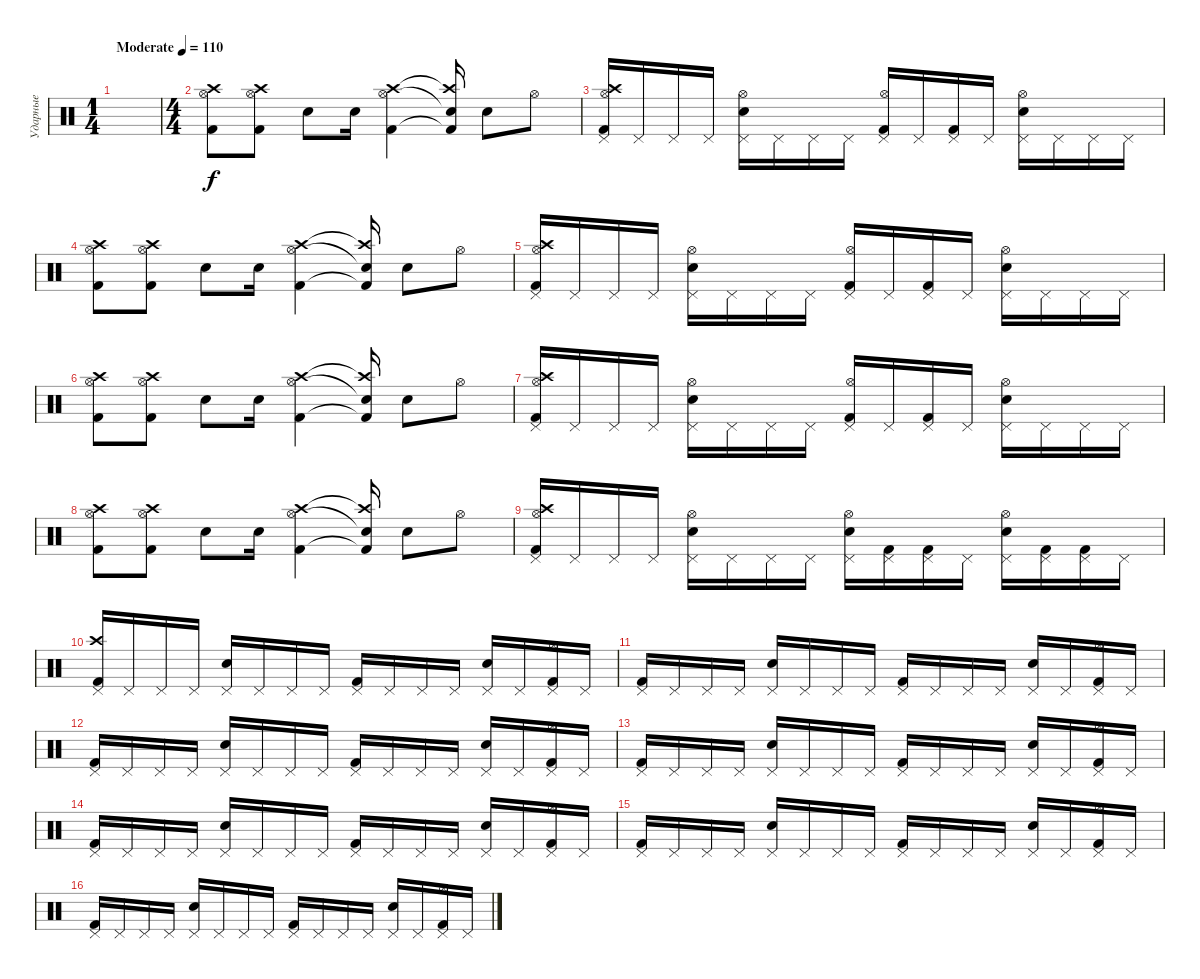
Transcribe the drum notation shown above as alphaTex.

\track ("Ударные" "Ударные") {instrument percussion}
\staff {score}
\articulation defaults
\ts (1 4)
\tempo (110 "Moderate")
\clef neutral
\ks c
|
\ts (4 4)
("Kick (hit) 2" "Crash high (hit)" "Hi-Hat (open)").8 ("Kick (hit) 2" "Crash high (hit)" "Hi-Hat (open)").8 "Snare (hit) 2".8 "Snare (hit) 2".16 ("Kick (hit) 2" "Crash high (hit)" "Hi-Hat (open)").4 ("Kick (hit) 2"{t} "Crash high (hit)"{t} "Snare (hit)"{t}).16 "Snare (hit) 2".8 "Hi-Hat (open)".8 |
("Kick (hit) 2" "Crash high (hit)" "Pedal Hi-Hat (hit)" "Hi-Hat (open)").16 "Pedal Hi-Hat (hit)".16 "Pedal Hi-Hat (hit)".16 "Pedal Hi-Hat (hit)".16 ("Snare (hit) 2" "Pedal Hi-Hat (hit)" "Hi-Hat (open)").16 "Pedal Hi-Hat (hit)".16 "Pedal Hi-Hat (hit)".16 "Pedal Hi-Hat (hit)".16 ("Kick (hit) 2" "Pedal Hi-Hat (hit)" "Hi-Hat (open)").16 "Pedal Hi-Hat (hit)".16 ("Kick (hit) 2" "Pedal Hi-Hat (hit)").16 "Pedal Hi-Hat (hit)".16 ("Snare (hit) 2" "Pedal Hi-Hat (hit)" "Hi-Hat (open)").16 "Pedal Hi-Hat (hit)".16 "Pedal Hi-Hat (hit)".16 "Pedal Hi-Hat (hit)".16 |
("Kick (hit) 2" "Crash high (hit)" "Hi-Hat (open)").8 ("Kick (hit) 2" "Crash high (hit)" "Hi-Hat (open)").8 "Snare (hit) 2".8 "Snare (hit) 2".16 ("Kick (hit) 2" "Crash high (hit)" "Hi-Hat (open)").4 ("Kick (hit) 2"{t} "Crash high (hit)"{t} "Snare (hit)"{t}).16 "Snare (hit) 2".8 "Hi-Hat (open)".8 |
("Kick (hit) 2" "Crash high (hit)" "Pedal Hi-Hat (hit)" "Hi-Hat (open)").16 "Pedal Hi-Hat (hit)".16 "Pedal Hi-Hat (hit)".16 "Pedal Hi-Hat (hit)".16 ("Snare (hit) 2" "Pedal Hi-Hat (hit)" "Hi-Hat (open)").16 "Pedal Hi-Hat (hit)".16 "Pedal Hi-Hat (hit)".16 "Pedal Hi-Hat (hit)".16 ("Kick (hit) 2" "Pedal Hi-Hat (hit)" "Hi-Hat (open)").16 "Pedal Hi-Hat (hit)".16 ("Kick (hit) 2" "Pedal Hi-Hat (hit)").16 "Pedal Hi-Hat (hit)".16 ("Snare (hit) 2" "Pedal Hi-Hat (hit)" "Hi-Hat (open)").16 "Pedal Hi-Hat (hit)".16 "Pedal Hi-Hat (hit)".16 "Pedal Hi-Hat (hit)".16 |
("Kick (hit) 2" "Crash high (hit)" "Hi-Hat (open)").8 ("Kick (hit) 2" "Crash high (hit)" "Hi-Hat (open)").8 "Snare (hit) 2".8 "Snare (hit) 2".16 ("Kick (hit) 2" "Crash high (hit)" "Hi-Hat (open)").4 ("Kick (hit) 2"{t} "Crash high (hit)"{t} "Snare (hit)"{t}).16 "Snare (hit) 2".8 "Hi-Hat (open)".8 |
("Kick (hit) 2" "Crash high (hit)" "Pedal Hi-Hat (hit)" "Hi-Hat (open)").16 "Pedal Hi-Hat (hit)".16 "Pedal Hi-Hat (hit)".16 "Pedal Hi-Hat (hit)".16 ("Snare (hit) 2" "Pedal Hi-Hat (hit)" "Hi-Hat (open)").16 "Pedal Hi-Hat (hit)".16 "Pedal Hi-Hat (hit)".16 "Pedal Hi-Hat (hit)".16 ("Kick (hit) 2" "Pedal Hi-Hat (hit)" "Hi-Hat (open)").16 "Pedal Hi-Hat (hit)".16 ("Kick (hit) 2" "Pedal Hi-Hat (hit)").16 "Pedal Hi-Hat (hit)".16 ("Snare (hit) 2" "Pedal Hi-Hat (hit)" "Hi-Hat (open)").16 "Pedal Hi-Hat (hit)".16 "Pedal Hi-Hat (hit)".16 "Pedal Hi-Hat (hit)".16 |
("Kick (hit) 2" "Crash high (hit)" "Hi-Hat (open)").8 ("Kick (hit) 2" "Crash high (hit)" "Hi-Hat (open)").8 "Snare (hit) 2".8 "Snare (hit) 2".16 ("Kick (hit) 2" "Crash high (hit)" "Hi-Hat (open)").4 ("Kick (hit) 2"{t} "Crash high (hit)"{t} "Snare (hit)"{t}).16 "Snare (hit) 2".8 "Hi-Hat (open)".8 |
("Kick (hit) 2" "Crash high (hit)" "Pedal Hi-Hat (hit)" "Hi-Hat (open)").16 "Pedal Hi-Hat (hit)".16 "Pedal Hi-Hat (hit)".16 "Pedal Hi-Hat (hit)".16 ("Snare (hit) 2" "Pedal Hi-Hat (hit)" "Hi-Hat (open)").16 "Pedal Hi-Hat (hit)".16 "Pedal Hi-Hat (hit)".16 "Pedal Hi-Hat (hit)".16 ("Snare (hit) 2" "Pedal Hi-Hat (hit)" "Hi-Hat (open)").16 ("Kick (hit) 2" "Pedal Hi-Hat (hit)").16 ("Kick (hit) 2" "Pedal Hi-Hat (hit)").16 "Pedal Hi-Hat (hit)".16 ("Snare (hit) 2" "Pedal Hi-Hat (hit)" "Hi-Hat (open)").16 ("Kick (hit) 2" "Pedal Hi-Hat (hit)").16 ("Kick (hit) 2" "Pedal Hi-Hat (hit)").16 "Pedal Hi-Hat (hit)".16 |
("Kick (hit) 2" "Crash high (hit)" "Pedal Hi-Hat (hit)").16 "Pedal Hi-Hat (hit)".16 "Pedal Hi-Hat (hit)".16 "Pedal Hi-Hat (hit)".16 ("Snare (hit) 2" "Pedal Hi-Hat (hit)").16 "Pedal Hi-Hat (hit)".16 "Pedal Hi-Hat (hit)".16 "Pedal Hi-Hat (hit)".16 ("Kick (hit) 2" "Pedal Hi-Hat (hit)").16 "Pedal Hi-Hat (hit)".16 "Pedal Hi-Hat (hit)".16 "Pedal Hi-Hat (hit)".16 ("Snare (hit) 2" "Pedal Hi-Hat (hit)").16 "Pedal Hi-Hat (hit)".16 ("Kick (hit) 2" "Pedal Hi-Hat (hit)" "Hi-Hat (open)").16 "Pedal Hi-Hat (hit)".16 |
("Kick (hit) 2" "Pedal Hi-Hat (hit)").16 "Pedal Hi-Hat (hit)".16 "Pedal Hi-Hat (hit)".16 "Pedal Hi-Hat (hit)".16 ("Snare (hit) 2" "Pedal Hi-Hat (hit)").16 "Pedal Hi-Hat (hit)".16 "Pedal Hi-Hat (hit)".16 "Pedal Hi-Hat (hit)".16 ("Kick (hit) 2" "Pedal Hi-Hat (hit)").16 "Pedal Hi-Hat (hit)".16 "Pedal Hi-Hat (hit)".16 "Pedal Hi-Hat (hit)".16 ("Snare (hit) 2" "Pedal Hi-Hat (hit)").16 "Pedal Hi-Hat (hit)".16 ("Kick (hit) 2" "Pedal Hi-Hat (hit)" "Hi-Hat (open)").16 "Pedal Hi-Hat (hit)".16 |
("Kick (hit) 2" "Pedal Hi-Hat (hit)").16 "Pedal Hi-Hat (hit)".16 "Pedal Hi-Hat (hit)".16 "Pedal Hi-Hat (hit)".16 ("Snare (hit) 2" "Pedal Hi-Hat (hit)").16 "Pedal Hi-Hat (hit)".16 "Pedal Hi-Hat (hit)".16 "Pedal Hi-Hat (hit)".16 ("Kick (hit) 2" "Pedal Hi-Hat (hit)").16 "Pedal Hi-Hat (hit)".16 "Pedal Hi-Hat (hit)".16 "Pedal Hi-Hat (hit)".16 ("Snare (hit) 2" "Pedal Hi-Hat (hit)").16 "Pedal Hi-Hat (hit)".16 ("Kick (hit) 2" "Pedal Hi-Hat (hit)" "Hi-Hat (open)").16 "Pedal Hi-Hat (hit)".16 |
("Kick (hit) 2" "Pedal Hi-Hat (hit)").16 "Pedal Hi-Hat (hit)".16 "Pedal Hi-Hat (hit)".16 "Pedal Hi-Hat (hit)".16 ("Snare (hit) 2" "Pedal Hi-Hat (hit)").16 "Pedal Hi-Hat (hit)".16 "Pedal Hi-Hat (hit)".16 "Pedal Hi-Hat (hit)".16 ("Kick (hit) 2" "Pedal Hi-Hat (hit)").16 "Pedal Hi-Hat (hit)".16 "Pedal Hi-Hat (hit)".16 "Pedal Hi-Hat (hit)".16 ("Snare (hit) 2" "Pedal Hi-Hat (hit)").16 "Pedal Hi-Hat (hit)".16 ("Kick (hit) 2" "Pedal Hi-Hat (hit)" "Hi-Hat (open)").16 "Pedal Hi-Hat (hit)".16 |
("Kick (hit) 2" "Pedal Hi-Hat (hit)").16 "Pedal Hi-Hat (hit)".16 "Pedal Hi-Hat (hit)".16 "Pedal Hi-Hat (hit)".16 ("Snare (hit) 2" "Pedal Hi-Hat (hit)").16 "Pedal Hi-Hat (hit)".16 "Pedal Hi-Hat (hit)".16 "Pedal Hi-Hat (hit)".16 ("Kick (hit) 2" "Pedal Hi-Hat (hit)").16 "Pedal Hi-Hat (hit)".16 "Pedal Hi-Hat (hit)".16 "Pedal Hi-Hat (hit)".16 ("Snare (hit) 2" "Pedal Hi-Hat (hit)").16 "Pedal Hi-Hat (hit)".16 ("Kick (hit) 2" "Pedal Hi-Hat (hit)" "Hi-Hat (open)").16 "Pedal Hi-Hat (hit)".16 |
("Kick (hit) 2" "Pedal Hi-Hat (hit)").16 "Pedal Hi-Hat (hit)".16 "Pedal Hi-Hat (hit)".16 "Pedal Hi-Hat (hit)".16 ("Snare (hit) 2" "Pedal Hi-Hat (hit)").16 "Pedal Hi-Hat (hit)".16 "Pedal Hi-Hat (hit)".16 "Pedal Hi-Hat (hit)".16 ("Kick (hit) 2" "Pedal Hi-Hat (hit)").16 "Pedal Hi-Hat (hit)".16 "Pedal Hi-Hat (hit)".16 "Pedal Hi-Hat (hit)".16 ("Snare (hit) 2" "Pedal Hi-Hat (hit)").16 "Pedal Hi-Hat (hit)".16 ("Kick (hit) 2" "Pedal Hi-Hat (hit)" "Hi-Hat (open)").16 "Pedal Hi-Hat (hit)".16 |
("Kick (hit) 2" "Pedal Hi-Hat (hit)").16 "Pedal Hi-Hat (hit)".16 "Pedal Hi-Hat (hit)".16 "Pedal Hi-Hat (hit)".16 ("Snare (hit) 2" "Pedal Hi-Hat (hit)").16 "Pedal Hi-Hat (hit)".16 "Pedal Hi-Hat (hit)".16 "Pedal Hi-Hat (hit)".16 ("Kick (hit) 2" "Pedal Hi-Hat (hit)").16 "Pedal Hi-Hat (hit)".16 "Pedal Hi-Hat (hit)".16 "Pedal Hi-Hat (hit)".16 ("Snare (hit) 2" "Pedal Hi-Hat (hit)").16 "Pedal Hi-Hat (hit)".16 ("Kick (hit) 2" "Pedal Hi-Hat (hit)" "Hi-Hat (open)").16 "Pedal Hi-Hat (hit)".16
